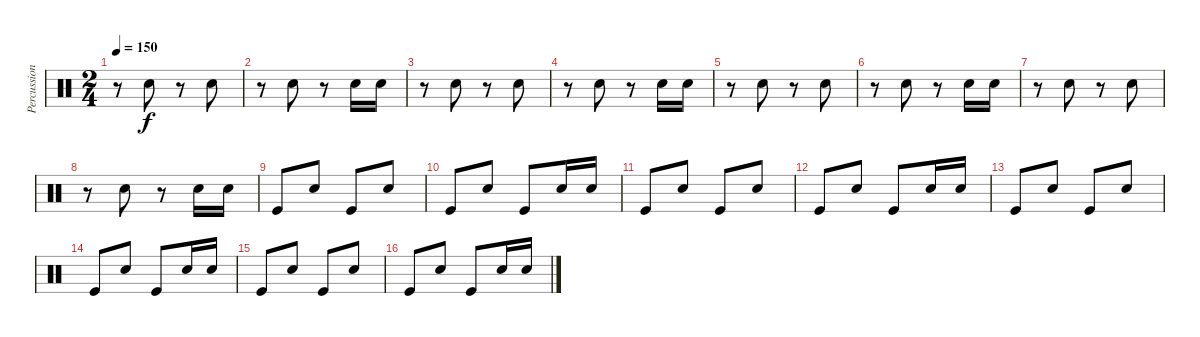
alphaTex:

\track ("Percussions" "Percussion") {instrument percussion}
\staff {score}
\articulation defaults
\ts (2 4)
\tempo 150
\clef neutral
\ks c
r.8{dy f} "Electric Snare (hit)".8 r.8 "Electric Snare (hit)".8 |
r.8 "Electric Snare (hit)".8 r.8 "Electric Snare (hit)".16 "Electric Snare (hit)".16 |
r.8 "Electric Snare (hit)".8 r.8 "Electric Snare (hit)".8 |
r.8 "Electric Snare (hit)".8 r.8 "Electric Snare (hit)".16 "Electric Snare (hit)".16 |
r.8 "Electric Snare (hit)".8 r.8 "Electric Snare (hit)".8 |
r.8 "Electric Snare (hit)".8 r.8 "Electric Snare (hit)".16 "Electric Snare (hit)".16 |
r.8 "Electric Snare (hit)".8 r.8 "Electric Snare (hit)".8 |
r.8 "Electric Snare (hit)".8 r.8 "Electric Snare (hit)".16 "Electric Snare (hit)".16 |
"Kick (hit)".8 "Electric Snare (hit)".8 "Kick (hit)".8 "Electric Snare (hit)".8 |
"Kick (hit)".8 "Electric Snare (hit)".8 "Kick (hit)".8 "Electric Snare (hit)".16 "Electric Snare (hit)".16 |
"Kick (hit)".8 "Electric Snare (hit)".8 "Kick (hit)".8 "Electric Snare (hit)".8 |
"Kick (hit)".8 "Electric Snare (hit)".8 "Kick (hit)".8 "Electric Snare (hit)".16 "Electric Snare (hit)".16 |
"Kick (hit)".8 "Electric Snare (hit)".8 "Kick (hit)".8 "Electric Snare (hit)".8 |
"Kick (hit)".8 "Electric Snare (hit)".8 "Kick (hit)".8 "Electric Snare (hit)".16 "Electric Snare (hit)".16 |
"Kick (hit)".8 "Electric Snare (hit)".8 "Kick (hit)".8 "Electric Snare (hit)".8 |
"Kick (hit)".8 "Electric Snare (hit)".8 "Kick (hit)".8 "Electric Snare (hit)".16 "Electric Snare (hit)".16
